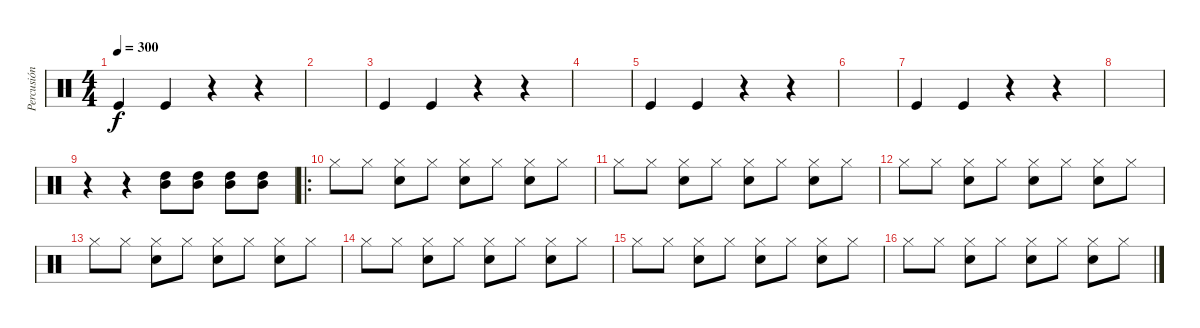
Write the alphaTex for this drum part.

\track ("Percusión" "Percusión") {instrument percussion}
\staff {score}
\articulation defaults
\ts (4 4)
\tempo 300
\clef neutral
\ks c "Kick (hit)".4{dy f} "Kick (hit)".4
r.4 r.4 |
|
"Kick (hit)".4 "Kick (hit)".4 r.4 r.4 |
|
"Kick (hit)".4 "Kick (hit)".4 r.4 r.4 |
|
"Kick (hit)".4 "Kick (hit)".4 r.4 r.4 |
|
r.4 r.4 ("High Tom (hit)" "Mid Tom (hit)").8 ("High Tom (hit)" "Mid Tom (hit)").8 ("High Tom (hit)" "Mid Tom (hit)").8 ("High Tom (hit)" "Mid Tom (hit)").8 |
\ro "Hi-Hat (closed)".8 "Hi-Hat (closed)".8
("Hi-Hat (closed)" "Snare (hit) 2").8 "Hi-Hat (closed)".8 ("Hi-Hat (closed)" "Snare (hit) 2").8 "Hi-Hat (closed)".8 ("Hi-Hat (closed)" "Snare (hit) 2").8 "Hi-Hat (closed)".8 |
"Hi-Hat (closed)".8 "Hi-Hat (closed)".8 ("Hi-Hat (closed)" "Snare (hit) 2").8 "Hi-Hat (closed)".8 ("Hi-Hat (closed)" "Snare (hit) 2").8 "Hi-Hat (closed)".8 ("Hi-Hat (closed)" "Snare (hit) 2").8 "Hi-Hat (closed)".8 |
"Hi-Hat (closed)".8 "Hi-Hat (closed)".8 ("Hi-Hat (closed)" "Snare (hit) 2").8 "Hi-Hat (closed)".8 ("Hi-Hat (closed)" "Snare (hit) 2").8 "Hi-Hat (closed)".8 ("Hi-Hat (closed)" "Snare (hit) 2").8 "Hi-Hat (closed)".8 |
"Hi-Hat (closed)".8 "Hi-Hat (closed)".8 ("Hi-Hat (closed)" "Snare (hit) 2").8 "Hi-Hat (closed)".8 ("Hi-Hat (closed)" "Snare (hit) 2").8 "Hi-Hat (closed)".8 ("Hi-Hat (closed)" "Snare (hit) 2").8 "Hi-Hat (closed)".8 |
"Hi-Hat (closed)".8 "Hi-Hat (closed)".8 ("Hi-Hat (closed)" "Snare (hit) 2").8 "Hi-Hat (closed)".8 ("Hi-Hat (closed)" "Snare (hit) 2").8 "Hi-Hat (closed)".8 ("Hi-Hat (closed)" "Snare (hit) 2").8 "Hi-Hat (closed)".8 |
"Hi-Hat (closed)".8 "Hi-Hat (closed)".8 ("Hi-Hat (closed)" "Snare (hit) 2").8 "Hi-Hat (closed)".8 ("Hi-Hat (closed)" "Snare (hit) 2").8 "Hi-Hat (closed)".8 ("Hi-Hat (closed)" "Snare (hit) 2").8 "Hi-Hat (closed)".8 |
"Hi-Hat (closed)".8 "Hi-Hat (closed)".8 ("Hi-Hat (closed)" "Snare (hit) 2").8 "Hi-Hat (closed)".8 ("Hi-Hat (closed)" "Snare (hit) 2").8 "Hi-Hat (closed)".8 ("Hi-Hat (closed)" "Snare (hit) 2").8 "Hi-Hat (closed)".8
